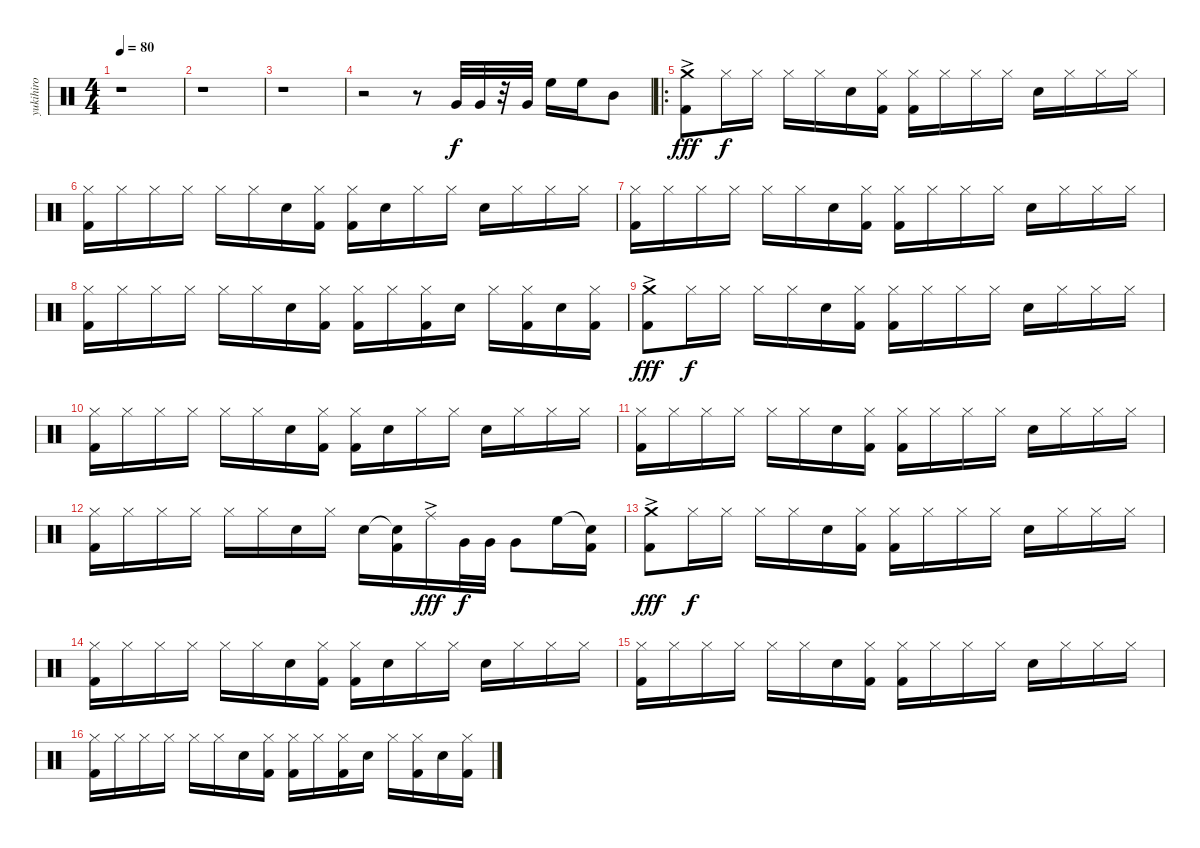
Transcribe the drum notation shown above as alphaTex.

\track ("yukihiro" "yukihiro") {instrument percussion}
\staff {score}
\articulation defaults
\ts (4 4)
\tempo 80
\clef neutral
\ks c
r.1{dy f} |
r.1 |
r.1 |
r.2 r.8 "Very Low Tom (hit)".32 "Very Low Tom (hit)".32 r.32 "Very Low Tom (hit)".32 "High Floor Tom (hit)".16 "High Floor Tom (hit)".16 "Mid Tom (hit)".8 |
\ro
("Crash medium (hit)"{ac} "Kick (hit) 2").8{dy fff} "Hi-Hat (closed)".16{dy f} "Hi-Hat (closed)".16 "Hi-Hat (closed)".16 "Hi-Hat (closed)".16 "Snare (hit) 2".16 ("Hi-Hat (closed)" "Kick (hit) 2").16 ("Hi-Hat (closed)" "Kick (hit) 2").16 "Hi-Hat (closed)".16 "Hi-Hat (closed)".16 "Hi-Hat (closed)".16 "Snare (hit) 2".16 "Hi-Hat (closed)".16 "Hi-Hat (closed)".16 "Hi-Hat (closed)".16 |
("Hi-Hat (closed)" "Kick (hit) 2").16 "Hi-Hat (closed)".16 "Hi-Hat (closed)".16 "Hi-Hat (closed)".16 "Hi-Hat (closed)".16 "Hi-Hat (closed)".16 "Snare (hit) 2".16 ("Hi-Hat (closed)" "Kick (hit) 2").16 ("Hi-Hat (closed)" "Kick (hit) 2").16 "Snare (hit) 2".16 "Hi-Hat (closed)".16 "Hi-Hat (closed)".16 "Snare (hit) 2".16 "Hi-Hat (closed)".16 "Hi-Hat (closed)".16 "Hi-Hat (closed)".16 |
("Hi-Hat (closed)" "Kick (hit) 2").16 "Hi-Hat (closed)".16 "Hi-Hat (closed)".16 "Hi-Hat (closed)".16 "Hi-Hat (closed)".16 "Hi-Hat (closed)".16 "Snare (hit) 2".16 ("Hi-Hat (closed)" "Kick (hit) 2").16 ("Hi-Hat (closed)" "Kick (hit) 2").16 "Hi-Hat (closed)".16 "Hi-Hat (closed)".16 "Hi-Hat (closed)".16 "Snare (hit) 2".16 "Hi-Hat (closed)".16 "Hi-Hat (closed)".16 "Hi-Hat (closed)".16 |
("Hi-Hat (closed)" "Kick (hit) 2").16 "Hi-Hat (closed)".16 "Hi-Hat (closed)".16 "Hi-Hat (closed)".16 "Hi-Hat (closed)".16 "Hi-Hat (closed)".16 "Snare (hit) 2".16 ("Hi-Hat (closed)" "Kick (hit) 2").16 ("Hi-Hat (closed)" "Kick (hit) 2").16 "Hi-Hat (closed)".16 ("Hi-Hat (closed)" "Kick (hit) 2").16 "Snare (hit) 2".16 "Hi-Hat (closed)".16 ("Hi-Hat (closed)" "Kick (hit) 2").16 "Snare (hit) 2".16 ("Hi-Hat (closed)" "Kick (hit) 2").16 |
("Crash medium (hit)"{ac} "Kick (hit) 2").8{dy fff} "Hi-Hat (closed)".16{dy f} "Hi-Hat (closed)".16 "Hi-Hat (closed)".16 "Hi-Hat (closed)".16 "Snare (hit) 2".16 ("Hi-Hat (closed)" "Kick (hit) 2").16 ("Hi-Hat (closed)" "Kick (hit) 2").16 "Hi-Hat (closed)".16 "Hi-Hat (closed)".16 "Hi-Hat (closed)".16 "Snare (hit) 2".16 "Hi-Hat (closed)".16 "Hi-Hat (closed)".16 "Hi-Hat (closed)".16 |
("Hi-Hat (closed)" "Kick (hit) 2").16 "Hi-Hat (closed)".16 "Hi-Hat (closed)".16 "Hi-Hat (closed)".16 "Hi-Hat (closed)".16 "Hi-Hat (closed)".16 "Snare (hit) 2".16 ("Hi-Hat (closed)" "Kick (hit) 2").16 ("Hi-Hat (closed)" "Kick (hit) 2").16 "Snare (hit) 2".16 "Hi-Hat (closed)".16 "Hi-Hat (closed)".16 "Snare (hit) 2".16 "Hi-Hat (closed)".16 "Hi-Hat (closed)".16 "Hi-Hat (closed)".16 |
("Hi-Hat (closed)" "Kick (hit) 2").16 "Hi-Hat (closed)".16 "Hi-Hat (closed)".16 "Hi-Hat (closed)".16 "Hi-Hat (closed)".16 "Hi-Hat (closed)".16 "Snare (hit) 2".16 ("Hi-Hat (closed)" "Kick (hit) 2").16 ("Hi-Hat (closed)" "Kick (hit) 2").16 "Hi-Hat (closed)".16 "Hi-Hat (closed)".16 "Hi-Hat (closed)".16 "Snare (hit) 2".16 "Hi-Hat (closed)".16 "Hi-Hat (closed)".16 "Hi-Hat (closed)".16 |
("Hi-Hat (closed)" "Kick (hit) 2").16 "Hi-Hat (closed)".16 "Hi-Hat (closed)".16 "Hi-Hat (closed)".16 "Hi-Hat (closed)".16 "Hi-Hat (closed)".16 "Snare (hit) 2".16 "Hi-Hat (closed)".16 "Snare (hit) 2".16 ("Snare (hit)"{t} "Kick (hit) 2").16 "Ride (middle)"{ac}.16{dy fff} "Very Low Tom (hit)".32{dy f} "Very Low Tom (hit)".32 "Very Low Tom (hit)".8 "High Floor Tom (hit)".16 ("Snare (hit)"{t} "Kick (hit) 2").16 |
("Crash medium (hit)"{ac} "Kick (hit) 2").8{dy fff} "Hi-Hat (closed)".16{dy f} "Hi-Hat (closed)".16 "Hi-Hat (closed)".16 "Hi-Hat (closed)".16 "Snare (hit) 2".16 ("Hi-Hat (closed)" "Kick (hit) 2").16 ("Hi-Hat (closed)" "Kick (hit) 2").16 "Hi-Hat (closed)".16 "Hi-Hat (closed)".16 "Hi-Hat (closed)".16 "Snare (hit) 2".16 "Hi-Hat (closed)".16 "Hi-Hat (closed)".16 "Hi-Hat (closed)".16 |
("Hi-Hat (closed)" "Kick (hit) 2").16 "Hi-Hat (closed)".16 "Hi-Hat (closed)".16 "Hi-Hat (closed)".16 "Hi-Hat (closed)".16 "Hi-Hat (closed)".16 "Snare (hit) 2".16 ("Hi-Hat (closed)" "Kick (hit) 2").16 ("Hi-Hat (closed)" "Kick (hit) 2").16 "Snare (hit) 2".16 "Hi-Hat (closed)".16 "Hi-Hat (closed)".16 "Snare (hit) 2".16 "Hi-Hat (closed)".16 "Hi-Hat (closed)".16 "Hi-Hat (closed)".16 |
("Hi-Hat (closed)" "Kick (hit) 2").16 "Hi-Hat (closed)".16 "Hi-Hat (closed)".16 "Hi-Hat (closed)".16 "Hi-Hat (closed)".16 "Hi-Hat (closed)".16 "Snare (hit) 2".16 ("Hi-Hat (closed)" "Kick (hit) 2").16 ("Hi-Hat (closed)" "Kick (hit) 2").16 "Hi-Hat (closed)".16 "Hi-Hat (closed)".16 "Hi-Hat (closed)".16 "Snare (hit) 2".16 "Hi-Hat (closed)".16 "Hi-Hat (closed)".16 "Hi-Hat (closed)".16 |
("Hi-Hat (closed)" "Kick (hit) 2").16 "Hi-Hat (closed)".16 "Hi-Hat (closed)".16 "Hi-Hat (closed)".16 "Hi-Hat (closed)".16 "Hi-Hat (closed)".16 "Snare (hit) 2".16 ("Hi-Hat (closed)" "Kick (hit) 2").16 ("Hi-Hat (closed)" "Kick (hit) 2").16 "Hi-Hat (closed)".16 ("Hi-Hat (closed)" "Kick (hit) 2").16 "Snare (hit) 2".16 "Hi-Hat (closed)".16 ("Hi-Hat (closed)" "Kick (hit) 2").16 "Snare (hit) 2".16 ("Hi-Hat (closed)" "Kick (hit) 2").16
